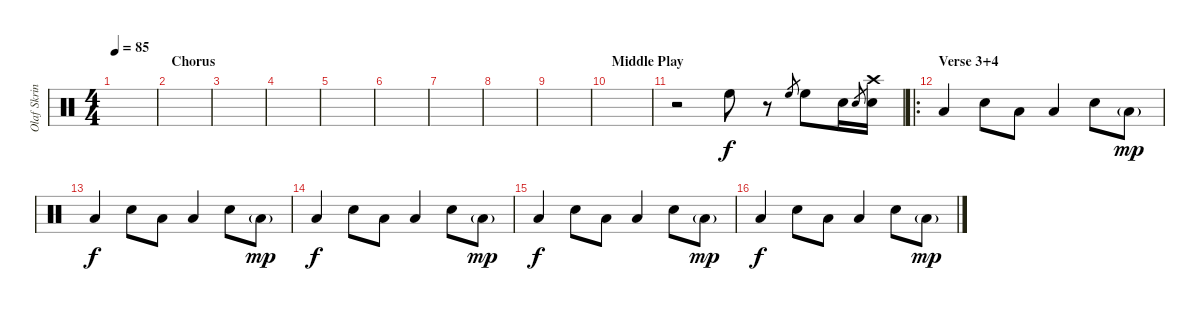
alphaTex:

\track ("Olaf Skrinde (Drums)" "Olaf Skrin") {instrument percussion}
\staff {score}
\articulation defaults
\ts (4 4)
\tempo 85
\clef neutral
\ks c
|
\section ("" "Chorus")
|
|
|
|
|
|
|
|
\section ("" "Middle Play")
|
r.2 "High Floor Tom (hit)".8 r.8 "High Floor Tom (hit)".8{gr} "High Floor Tom (hit)".8 "Snare (hit) 2".16 "Snare (hit) 2".8{gr} ("Snare (hit) 2" "Crash high (hit)").16 |
\ro
\section ("" "Verse 3+4")
"Low Floor Tom (hit)".4 "Snare (hit) 2".8 "Low Floor Tom (hit)".8 "Low Floor Tom (hit)".4 "Snare (hit) 2".8 "Low Floor Tom (hit)"{g}.8{dy mp} |
"Low Floor Tom (hit)".4{dy f} "Snare (hit) 2".8 "Low Floor Tom (hit)".8 "Low Floor Tom (hit)".4 "Snare (hit) 2".8 "Low Floor Tom (hit)"{g}.8{dy mp} |
"Low Floor Tom (hit)".4{dy f} "Snare (hit) 2".8 "Low Floor Tom (hit)".8 "Low Floor Tom (hit)".4 "Snare (hit) 2".8 "Low Floor Tom (hit)"{g}.8{dy mp} |
"Low Floor Tom (hit)".4{dy f} "Snare (hit) 2".8 "Low Floor Tom (hit)".8 "Low Floor Tom (hit)".4 "Snare (hit) 2".8 "Low Floor Tom (hit)"{g}.8{dy mp} |
"Low Floor Tom (hit)".4{dy f} "Snare (hit) 2".8 "Low Floor Tom (hit)".8 "Low Floor Tom (hit)".4 "Snare (hit) 2".8 "Low Floor Tom (hit)"{g}.8{dy mp}
